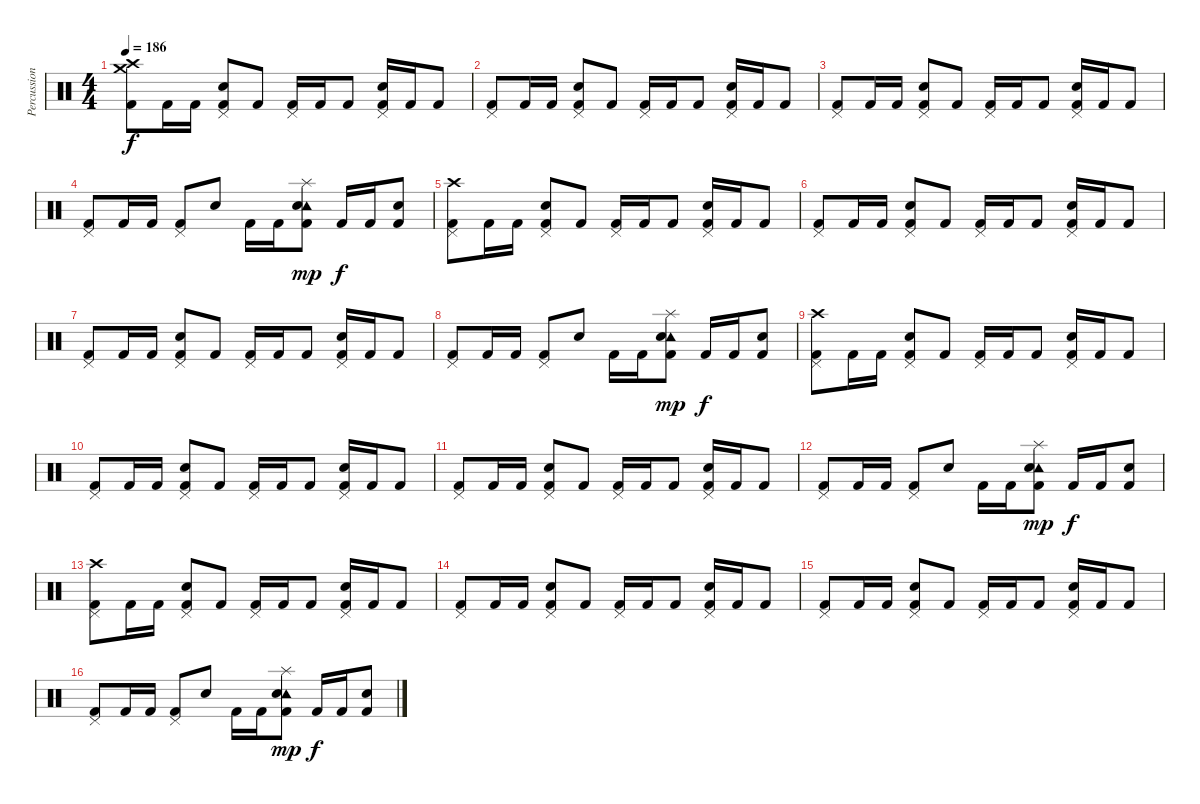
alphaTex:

\track ("Percussion" "Percussion") {instrument percussion}
\staff {score}
\articulation defaults
\ts (4 4)
\tempo 186
\clef neutral
\ks c
("Crash high (hit)" "Crash medium (hit)" "Kick (hit) 2").8{dy f} "Kick (hit) 2".16 "Kick (hit) 2".16 ("Electric Snare (hit)" "Pedal Hi-Hat (hit)" "Kick (hit) 2").8 "Kick (hit) 2".8 ("Pedal Hi-Hat (hit)" "Kick (hit) 2").16 "Kick (hit) 2".16 "Kick (hit) 2".8 ("Electric Snare (hit)" "Pedal Hi-Hat (hit)" "Kick (hit) 2").16 "Kick (hit) 2".16 "Kick (hit) 2".8 |
("Pedal Hi-Hat (hit)" "Kick (hit) 2").8 "Kick (hit) 2".16 "Kick (hit) 2".16 ("Electric Snare (hit)" "Pedal Hi-Hat (hit)" "Kick (hit) 2").8 "Kick (hit) 2".8 ("Pedal Hi-Hat (hit)" "Kick (hit) 2").16 "Kick (hit) 2".16 "Kick (hit) 2".8 ("Electric Snare (hit)" "Pedal Hi-Hat (hit)" "Kick (hit) 2").16 "Kick (hit) 2".16 "Kick (hit) 2".8 |
("Pedal Hi-Hat (hit)" "Kick (hit) 2").8 "Kick (hit) 2".16 "Kick (hit) 2".16 ("Electric Snare (hit)" "Pedal Hi-Hat (hit)" "Kick (hit) 2").8 "Kick (hit) 2".8 ("Pedal Hi-Hat (hit)" "Kick (hit) 2").16 "Kick (hit) 2".16 "Kick (hit) 2".8 ("Electric Snare (hit)" "Pedal Hi-Hat (hit)" "Kick (hit) 2").16 "Kick (hit) 2".16 "Kick (hit) 2".8 |
("Pedal Hi-Hat (hit)" "Kick (hit) 2").8 "Kick (hit) 2".16 "Kick (hit) 2".16 ("Pedal Hi-Hat (hit)" "Kick (hit) 2").8 "Electric Snare (hit)".8 "Kick (hit) 2".16 "Kick (hit) 2".16 ("Tambourine (hit)" "Splash (hit)" "Electric Snare (hit)" "Kick (hit) 2").8{dy mp} "Kick (hit) 2".16{dy f} "Kick (hit) 2".16 ("Electric Snare (hit)" "Kick (hit) 2").8 |
("Crash high (hit)" "Pedal Hi-Hat (hit)" "Kick (hit) 2").8 "Kick (hit) 2".16 "Kick (hit) 2".16 ("Electric Snare (hit)" "Pedal Hi-Hat (hit)" "Kick (hit) 2").8 "Kick (hit) 2".8 ("Pedal Hi-Hat (hit)" "Kick (hit) 2").16 "Kick (hit) 2".16 "Kick (hit) 2".8 ("Electric Snare (hit)" "Pedal Hi-Hat (hit)" "Kick (hit) 2").16 "Kick (hit) 2".16 "Kick (hit) 2".8 |
("Pedal Hi-Hat (hit)" "Kick (hit) 2").8 "Kick (hit) 2".16 "Kick (hit) 2".16 ("Electric Snare (hit)" "Pedal Hi-Hat (hit)" "Kick (hit) 2").8 "Kick (hit) 2".8 ("Pedal Hi-Hat (hit)" "Kick (hit) 2").16 "Kick (hit) 2".16 "Kick (hit) 2".8 ("Electric Snare (hit)" "Pedal Hi-Hat (hit)" "Kick (hit) 2").16 "Kick (hit) 2".16 "Kick (hit) 2".8 |
("Pedal Hi-Hat (hit)" "Kick (hit) 2").8 "Kick (hit) 2".16 "Kick (hit) 2".16 ("Electric Snare (hit)" "Pedal Hi-Hat (hit)" "Kick (hit) 2").8 "Kick (hit) 2".8 ("Pedal Hi-Hat (hit)" "Kick (hit) 2").16 "Kick (hit) 2".16 "Kick (hit) 2".8 ("Electric Snare (hit)" "Pedal Hi-Hat (hit)" "Kick (hit) 2").16 "Kick (hit) 2".16 "Kick (hit) 2".8 |
("Pedal Hi-Hat (hit)" "Kick (hit) 2").8 "Kick (hit) 2".16 "Kick (hit) 2".16 ("Pedal Hi-Hat (hit)" "Kick (hit) 2").8 "Electric Snare (hit)".8 "Kick (hit) 2".16 "Kick (hit) 2".16 ("Tambourine (hit)" "Splash (hit)" "Electric Snare (hit)" "Kick (hit) 2").8{dy mp} "Kick (hit) 2".16{dy f} "Kick (hit) 2".16 ("Electric Snare (hit)" "Kick (hit) 2").8 |
("Crash high (hit)" "Pedal Hi-Hat (hit)" "Kick (hit) 2").8 "Kick (hit) 2".16 "Kick (hit) 2".16 ("Electric Snare (hit)" "Pedal Hi-Hat (hit)" "Kick (hit) 2").8 "Kick (hit) 2".8 ("Pedal Hi-Hat (hit)" "Kick (hit) 2").16 "Kick (hit) 2".16 "Kick (hit) 2".8 ("Electric Snare (hit)" "Pedal Hi-Hat (hit)" "Kick (hit) 2").16 "Kick (hit) 2".16 "Kick (hit) 2".8 |
("Pedal Hi-Hat (hit)" "Kick (hit) 2").8 "Kick (hit) 2".16 "Kick (hit) 2".16 ("Electric Snare (hit)" "Pedal Hi-Hat (hit)" "Kick (hit) 2").8 "Kick (hit) 2".8 ("Pedal Hi-Hat (hit)" "Kick (hit) 2").16 "Kick (hit) 2".16 "Kick (hit) 2".8 ("Electric Snare (hit)" "Pedal Hi-Hat (hit)" "Kick (hit) 2").16 "Kick (hit) 2".16 "Kick (hit) 2".8 |
("Pedal Hi-Hat (hit)" "Kick (hit) 2").8 "Kick (hit) 2".16 "Kick (hit) 2".16 ("Electric Snare (hit)" "Pedal Hi-Hat (hit)" "Kick (hit) 2").8 "Kick (hit) 2".8 ("Pedal Hi-Hat (hit)" "Kick (hit) 2").16 "Kick (hit) 2".16 "Kick (hit) 2".8 ("Electric Snare (hit)" "Pedal Hi-Hat (hit)" "Kick (hit) 2").16 "Kick (hit) 2".16 "Kick (hit) 2".8 |
("Pedal Hi-Hat (hit)" "Kick (hit) 2").8 "Kick (hit) 2".16 "Kick (hit) 2".16 ("Pedal Hi-Hat (hit)" "Kick (hit) 2").8 "Electric Snare (hit)".8 "Kick (hit) 2".16 "Kick (hit) 2".16 ("Tambourine (hit)" "Splash (hit)" "Electric Snare (hit)" "Kick (hit) 2").8{dy mp} "Kick (hit) 2".16{dy f} "Kick (hit) 2".16 ("Electric Snare (hit)" "Kick (hit) 2").8 |
("Crash high (hit)" "Pedal Hi-Hat (hit)" "Kick (hit) 2").8 "Kick (hit) 2".16 "Kick (hit) 2".16 ("Electric Snare (hit)" "Pedal Hi-Hat (hit)" "Kick (hit) 2").8 "Kick (hit) 2".8 ("Pedal Hi-Hat (hit)" "Kick (hit) 2").16 "Kick (hit) 2".16 "Kick (hit) 2".8 ("Electric Snare (hit)" "Pedal Hi-Hat (hit)" "Kick (hit) 2").16 "Kick (hit) 2".16 "Kick (hit) 2".8 |
("Pedal Hi-Hat (hit)" "Kick (hit) 2").8 "Kick (hit) 2".16 "Kick (hit) 2".16 ("Electric Snare (hit)" "Pedal Hi-Hat (hit)" "Kick (hit) 2").8 "Kick (hit) 2".8 ("Pedal Hi-Hat (hit)" "Kick (hit) 2").16 "Kick (hit) 2".16 "Kick (hit) 2".8 ("Electric Snare (hit)" "Pedal Hi-Hat (hit)" "Kick (hit) 2").16 "Kick (hit) 2".16 "Kick (hit) 2".8 |
("Pedal Hi-Hat (hit)" "Kick (hit) 2").8 "Kick (hit) 2".16 "Kick (hit) 2".16 ("Electric Snare (hit)" "Pedal Hi-Hat (hit)" "Kick (hit) 2").8 "Kick (hit) 2".8 ("Pedal Hi-Hat (hit)" "Kick (hit) 2").16 "Kick (hit) 2".16 "Kick (hit) 2".8 ("Electric Snare (hit)" "Pedal Hi-Hat (hit)" "Kick (hit) 2").16 "Kick (hit) 2".16 "Kick (hit) 2".8 |
("Pedal Hi-Hat (hit)" "Kick (hit) 2").8 "Kick (hit) 2".16 "Kick (hit) 2".16 ("Pedal Hi-Hat (hit)" "Kick (hit) 2").8 "Electric Snare (hit)".8 "Kick (hit) 2".16 "Kick (hit) 2".16 ("Tambourine (hit)" "Splash (hit)" "Electric Snare (hit)" "Kick (hit) 2").8{dy mp} "Kick (hit) 2".16{dy f} "Kick (hit) 2".16 ("Electric Snare (hit)" "Kick (hit) 2").8
